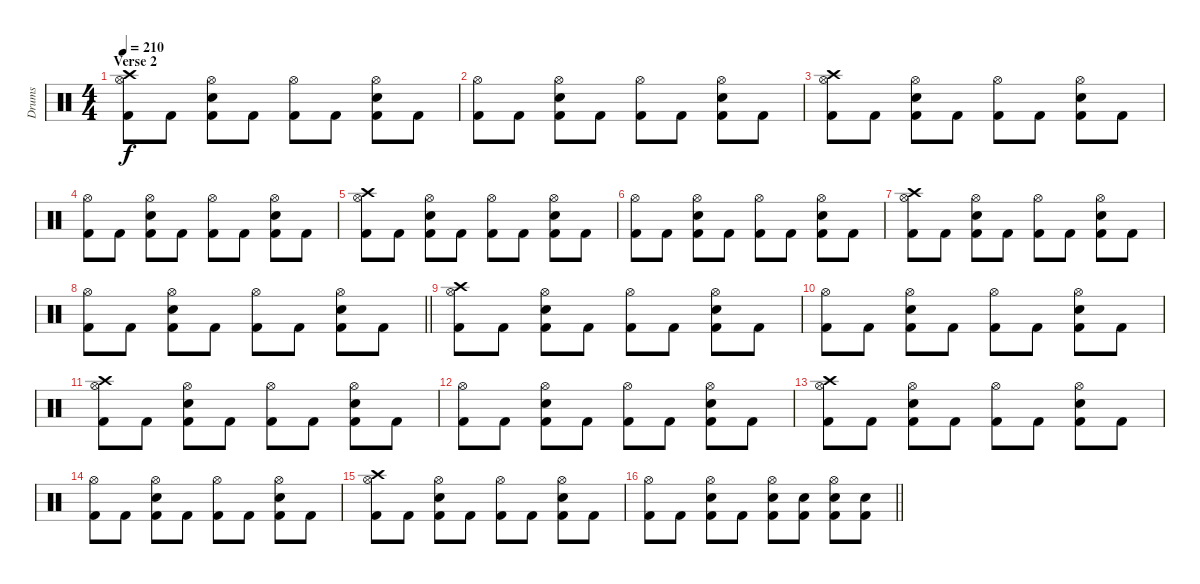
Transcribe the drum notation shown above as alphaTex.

\track ("Drums" "Drums") {instrument percussion}
\staff {score}
\articulation defaults
\ts (4 4)
\section ("" "Verse 2")
\tempo 210
\clef neutral
\ks c
("Crash high (hit)" "Hi-Hat (open)" "Kick (hit) 2").8{dy f} "Kick (hit) 2".8 ("Hi-Hat (open)" "Snare (hit) 2" "Kick (hit) 2").8 "Kick (hit) 2".8 ("Hi-Hat (open)" "Kick (hit) 2").8 "Kick (hit) 2".8 ("Hi-Hat (open)" "Snare (hit) 2" "Kick (hit) 2").8 "Kick (hit) 2".8 |
("Hi-Hat (open)" "Kick (hit) 2").8 "Kick (hit) 2".8 ("Hi-Hat (open)" "Snare (hit) 2" "Kick (hit) 2").8 "Kick (hit) 2".8 ("Hi-Hat (open)" "Kick (hit) 2").8 "Kick (hit) 2".8 ("Hi-Hat (open)" "Snare (hit) 2" "Kick (hit) 2").8 "Kick (hit) 2".8 |
("Crash high (hit)" "Hi-Hat (open)" "Kick (hit) 2").8 "Kick (hit) 2".8 ("Hi-Hat (open)" "Snare (hit) 2" "Kick (hit) 2").8 "Kick (hit) 2".8 ("Hi-Hat (open)" "Kick (hit) 2").8 "Kick (hit) 2".8 ("Hi-Hat (open)" "Snare (hit) 2" "Kick (hit) 2").8 "Kick (hit) 2".8 |
("Hi-Hat (open)" "Kick (hit) 2").8 "Kick (hit) 2".8 ("Hi-Hat (open)" "Snare (hit) 2" "Kick (hit) 2").8 "Kick (hit) 2".8 ("Hi-Hat (open)" "Kick (hit) 2").8 "Kick (hit) 2".8 ("Hi-Hat (open)" "Snare (hit) 2" "Kick (hit) 2").8 "Kick (hit) 2".8 |
("Crash high (hit)" "Hi-Hat (open)" "Kick (hit) 2").8 "Kick (hit) 2".8 ("Hi-Hat (open)" "Snare (hit) 2" "Kick (hit) 2").8 "Kick (hit) 2".8 ("Hi-Hat (open)" "Kick (hit) 2").8 "Kick (hit) 2".8 ("Hi-Hat (open)" "Snare (hit) 2" "Kick (hit) 2").8 "Kick (hit) 2".8 |
("Hi-Hat (open)" "Kick (hit) 2").8 "Kick (hit) 2".8 ("Hi-Hat (open)" "Snare (hit) 2" "Kick (hit) 2").8 "Kick (hit) 2".8 ("Hi-Hat (open)" "Kick (hit) 2").8 "Kick (hit) 2".8 ("Hi-Hat (open)" "Snare (hit) 2" "Kick (hit) 2").8 "Kick (hit) 2".8 |
("Crash high (hit)" "Hi-Hat (open)" "Kick (hit) 2").8 "Kick (hit) 2".8 ("Hi-Hat (open)" "Snare (hit) 2" "Kick (hit) 2").8 "Kick (hit) 2".8 ("Hi-Hat (open)" "Kick (hit) 2").8 "Kick (hit) 2".8 ("Hi-Hat (open)" "Snare (hit) 2" "Kick (hit) 2").8 "Kick (hit) 2".8 |
\barLineRight lightlight
("Hi-Hat (open)" "Kick (hit) 2").8 "Kick (hit) 2".8 ("Hi-Hat (open)" "Snare (hit) 2" "Kick (hit) 2").8 "Kick (hit) 2".8 ("Hi-Hat (open)" "Kick (hit) 2").8 "Kick (hit) 2".8 ("Hi-Hat (open)" "Snare (hit) 2" "Kick (hit) 2").8 "Kick (hit) 2".8 |
("Crash high (hit)" "Hi-Hat (open)" "Kick (hit) 2").8 "Kick (hit) 2".8 ("Hi-Hat (open)" "Snare (hit) 2" "Kick (hit) 2").8 "Kick (hit) 2".8 ("Hi-Hat (open)" "Kick (hit) 2").8 "Kick (hit) 2".8 ("Hi-Hat (open)" "Snare (hit) 2" "Kick (hit) 2").8 "Kick (hit) 2".8 |
("Hi-Hat (open)" "Kick (hit) 2").8 "Kick (hit) 2".8 ("Hi-Hat (open)" "Snare (hit) 2" "Kick (hit) 2").8 "Kick (hit) 2".8 ("Hi-Hat (open)" "Kick (hit) 2").8 "Kick (hit) 2".8 ("Hi-Hat (open)" "Snare (hit) 2" "Kick (hit) 2").8 "Kick (hit) 2".8 |
("Crash high (hit)" "Hi-Hat (open)" "Kick (hit) 2").8 "Kick (hit) 2".8 ("Hi-Hat (open)" "Snare (hit) 2" "Kick (hit) 2").8 "Kick (hit) 2".8 ("Hi-Hat (open)" "Kick (hit) 2").8 "Kick (hit) 2".8 ("Hi-Hat (open)" "Snare (hit) 2" "Kick (hit) 2").8 "Kick (hit) 2".8 |
("Hi-Hat (open)" "Kick (hit) 2").8 "Kick (hit) 2".8 ("Hi-Hat (open)" "Snare (hit) 2" "Kick (hit) 2").8 "Kick (hit) 2".8 ("Hi-Hat (open)" "Kick (hit) 2").8 "Kick (hit) 2".8 ("Hi-Hat (open)" "Snare (hit) 2" "Kick (hit) 2").8 "Kick (hit) 2".8 |
("Crash high (hit)" "Hi-Hat (open)" "Kick (hit) 2").8 "Kick (hit) 2".8 ("Hi-Hat (open)" "Snare (hit) 2" "Kick (hit) 2").8 "Kick (hit) 2".8 ("Hi-Hat (open)" "Kick (hit) 2").8 "Kick (hit) 2".8 ("Hi-Hat (open)" "Snare (hit) 2" "Kick (hit) 2").8 "Kick (hit) 2".8 |
("Hi-Hat (open)" "Kick (hit) 2").8 "Kick (hit) 2".8 ("Hi-Hat (open)" "Snare (hit) 2" "Kick (hit) 2").8 "Kick (hit) 2".8 ("Hi-Hat (open)" "Kick (hit) 2").8 "Kick (hit) 2".8 ("Hi-Hat (open)" "Snare (hit) 2" "Kick (hit) 2").8 "Kick (hit) 2".8 |
("Crash high (hit)" "Hi-Hat (open)" "Kick (hit) 2").8 "Kick (hit) 2".8 ("Hi-Hat (open)" "Snare (hit) 2" "Kick (hit) 2").8 "Kick (hit) 2".8 ("Hi-Hat (open)" "Kick (hit) 2").8 "Kick (hit) 2".8 ("Hi-Hat (open)" "Snare (hit) 2" "Kick (hit) 2").8 "Kick (hit) 2".8 |
\barLineRight lightlight
("Hi-Hat (open)" "Kick (hit) 2").8 "Kick (hit) 2".8 ("Hi-Hat (open)" "Snare (hit) 2" "Kick (hit) 2").8 "Kick (hit) 2".8 ("Hi-Hat (open)" "Snare (hit) 2" "Kick (hit) 2").8 ("Snare (hit) 2" "Kick (hit) 2").8 ("Hi-Hat (open)" "Snare (hit) 2" "Kick (hit) 2").8 ("Snare (hit) 2" "Kick (hit) 2").8
